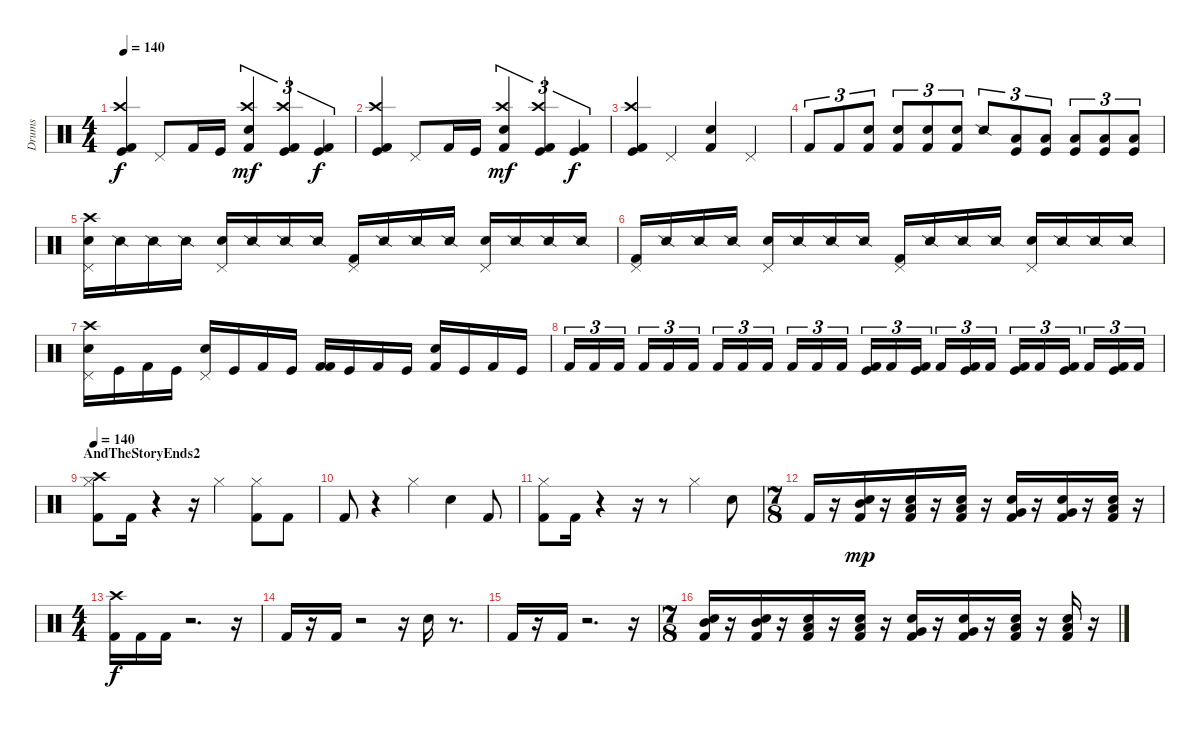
\track ("Drums" "Drums") {instrument percussion}
\staff {score}
\articulation defaults
\ts (4 4)
\tempo 140
\clef neutral
\ks c
("Kick (hit) 2" "Crash high (hit)" "Kick (hit)").4{dy f} "Pedal Hi-Hat (hit)".8 "Kick (hit) 2".16 "Kick (hit)".16 ("Kick (hit) 2" "Snare (hit) 2" "Crash high (hit)").4{tu (3 2) dy mf} ("Kick (hit) 2" "Kick (hit)" "Crash high (hit)").4{tu (3 2)} ("Kick (hit) 2" "Kick (hit)").4{tu (3 2) dy f} |
("Kick (hit) 2" "Crash high (hit)" "Kick (hit)").4 "Pedal Hi-Hat (hit)".8 "Kick (hit) 2".16 "Kick (hit)".16 ("Kick (hit) 2" "Snare (hit) 2" "Crash high (hit)").4{tu (3 2) dy mf} ("Kick (hit) 2" "Kick (hit)" "Crash high (hit)").4{tu (3 2)} ("Kick (hit) 2" "Kick (hit)").4{tu (3 2) dy f} |
("Kick (hit) 2" "Kick (hit)" "Crash high (hit)").4 "Pedal Hi-Hat (hit)".4 ("Kick (hit) 2" "Snare (hit) 2").4 "Pedal Hi-Hat (hit)".4 |
"Kick (hit) 2".8{tu (3 2)} "Kick (hit) 2".8{tu (3 2)} ("Kick (hit) 2" "Electric Snare (hit)").8{tu (3 2)} ("Kick (hit) 2" "Electric Snare (hit)").8{tu (3 2)} ("Kick (hit) 2" "Electric Snare (hit)").8{tu (3 2)} ("Kick (hit) 2" "Electric Snare (hit)").8{tu (3 2)} "Snare (side stick) 2".8{tu (3 2)} ("Kick (hit)" "Low Tom (hit)").8{tu (3 2)} ("Kick (hit)" "Low Tom (hit)").8{tu (3 2)} ("Kick (hit)" "Low Tom (hit)").8{tu (3 2)} ("Kick (hit)" "Low Tom (hit)").8{tu (3 2)} ("Kick (hit)" "Low Tom (hit)").8{tu (3 2)} |
("Pedal Hi-Hat (hit)" "Snare (hit) 2" "Crash high (hit)").16 "Snare (side stick) 2".16 "Snare (side stick) 2".16 "Snare (side stick) 2".16 ("Pedal Hi-Hat (hit)" "Snare (hit) 2").16 "Snare (side stick) 2".16 "Snare (side stick) 2".16 "Snare (side stick) 2".16 ("Pedal Hi-Hat (hit)" "Kick (hit) 2").16 "Snare (side stick) 2".16 "Snare (side stick) 2".16 "Snare (side stick) 2".16 ("Pedal Hi-Hat (hit)" "Snare (hit) 2").16 "Snare (side stick) 2".16 "Snare (side stick) 2".16 "Snare (side stick) 2".16 |
("Pedal Hi-Hat (hit)" "Kick (hit) 2").16 "Snare (side stick) 2".16 "Snare (side stick) 2".16 "Snare (side stick) 2".16 ("Pedal Hi-Hat (hit)" "Snare (hit) 2").16 "Snare (side stick) 2".16 "Snare (side stick) 2".16 "Snare (side stick) 2".16 ("Pedal Hi-Hat (hit)" "Kick (hit) 2").16 "Snare (side stick) 2".16 "Snare (side stick) 2".16 "Snare (side stick) 2".16 ("Pedal Hi-Hat (hit)" "Snare (hit) 2").16 "Snare (side stick) 2".16 "Snare (side stick) 2".16 "Snare (side stick) 2".16 |
("Pedal Hi-Hat (hit)" "Snare (hit) 2" "Crash high (hit)").16 "Kick (hit)".16 "Kick (hit) 2".16 "Kick (hit)".16 ("Pedal Hi-Hat (hit)" "Snare (hit) 2").16 "Kick (hit)".16 "Kick (hit) 2".16 "Kick (hit)".16 ("Kick (hit) 2" "Kick (hit) 2").16 "Kick (hit)".16 "Kick (hit) 2".16 "Kick (hit)".16 ("Kick (hit) 2" "Snare (hit) 2").16 "Kick (hit)".16 "Kick (hit) 2".16 "Kick (hit)".16 |
"Kick (hit) 2".16{tu (3 2)} "Kick (hit) 2".16{tu (3 2)} "Kick (hit) 2".16{tu (3 2)} "Kick (hit) 2".16{tu (3 2)} "Kick (hit) 2".16{tu (3 2)} "Kick (hit) 2".16{tu (3 2)} "Kick (hit) 2".16{tu (3 2)} "Kick (hit) 2".16{tu (3 2)} "Kick (hit) 2".16{tu (3 2)} "Kick (hit) 2".16{tu (3 2)} "Kick (hit) 2".16{tu (3 2)} "Kick (hit) 2".16{tu (3 2)} ("Kick (hit) 2" "Kick (hit)").16{tu (3 2)} "Kick (hit) 2".16{tu (3 2)} ("Kick (hit) 2" "Kick (hit)").16{tu (3 2)} "Kick (hit) 2".16{tu (3 2)} ("Kick (hit) 2" "Kick (hit)").16{tu (3 2)} "Kick (hit) 2".16{tu (3 2)} ("Kick (hit) 2" "Kick (hit)").16{tu (3 2)} "Kick (hit) 2".16{tu (3 2)} ("Kick (hit) 2" "Kick (hit)").16{tu (3 2)} "Kick (hit) 2".16{tu (3 2)} ("Kick (hit) 2" "Kick (hit)").16{tu (3 2)} "Kick (hit) 2".16{tu (3 2)} |
\section ("" "AndTheStoryEnds2")
\tempo 140
("Kick (hit) 2" "Hi-Hat (closed)" "Crash high (hit)").8{volume 11} "Kick (hit) 2".16 r.4 r.16 "Hi-Hat (closed)".4 ("Kick (hit) 2" "Hi-Hat (closed)").8 "Kick (hit) 2".8 |
"Kick (hit) 2".8 r.4 "Hi-Hat (closed)".4 "Snare (hit) 2".4 "Kick (hit) 2".8 |
("Kick (hit) 2" "Hi-Hat (closed)").8 "Kick (hit) 2".16 r.4 r.16 r.8 "Hi-Hat (closed)".4 "Snare (hit) 2".8 |
\ts (7 8)
"Kick (hit) 2".16 r.16 ("Kick (hit) 2" "Snare (hit) 2" "Mid Tom (hit)").16{dy mp} r.16 ("Kick (hit) 2" "Snare (hit) 2" "Low Tom (hit)").16 r.16 ("Kick (hit) 2" "Snare (hit) 2" "Low Tom (hit)").16 r.16 ("Kick (hit) 2" "Snare (hit) 2" "Very Low Tom (hit)").16 r.16 ("Kick (hit) 2" "Snare (hit) 2" "Very Low Tom (hit)").16 r.16 ("Kick (hit) 2" "Snare (hit) 2" "Low Floor Tom (hit)").16 r.16 |
\ts (4 4)
("Kick (hit) 2" "Crash high (hit)").16{dy f} "Kick (hit) 2".16 "Kick (hit) 2".16 r.2{d} r.16 |
"Kick (hit) 2".16 r.16 "Kick (hit) 2".16 r.2 r.16 "Snare (hit) 2".16 r.8{d} |
"Kick (hit) 2".16 r.16 "Kick (hit) 2".16 r.2{d} r.16 |
\ts (7 8)
("Kick (hit) 2" "Snare (hit) 2" "Mid Tom (hit)").16 r.16 ("Kick (hit) 2" "Snare (hit) 2" "Mid Tom (hit)").16 r.16 ("Kick (hit) 2" "Snare (hit) 2" "Low Tom (hit)").16 r.16 ("Kick (hit) 2" "Snare (hit) 2" "Low Tom (hit)").16 r.16 ("Kick (hit) 2" "Snare (hit) 2" "Very Low Tom (hit)").16 r.16 ("Kick (hit) 2" "Snare (hit) 2" "Very Low Tom (hit)").16 r.16 ("Kick (hit) 2" "Snare (hit) 2" "Low Floor Tom (hit)").16 r.16 ("Kick (hit) 2" "Snare (hit) 2" "Low Floor Tom (hit)").16 r.16
